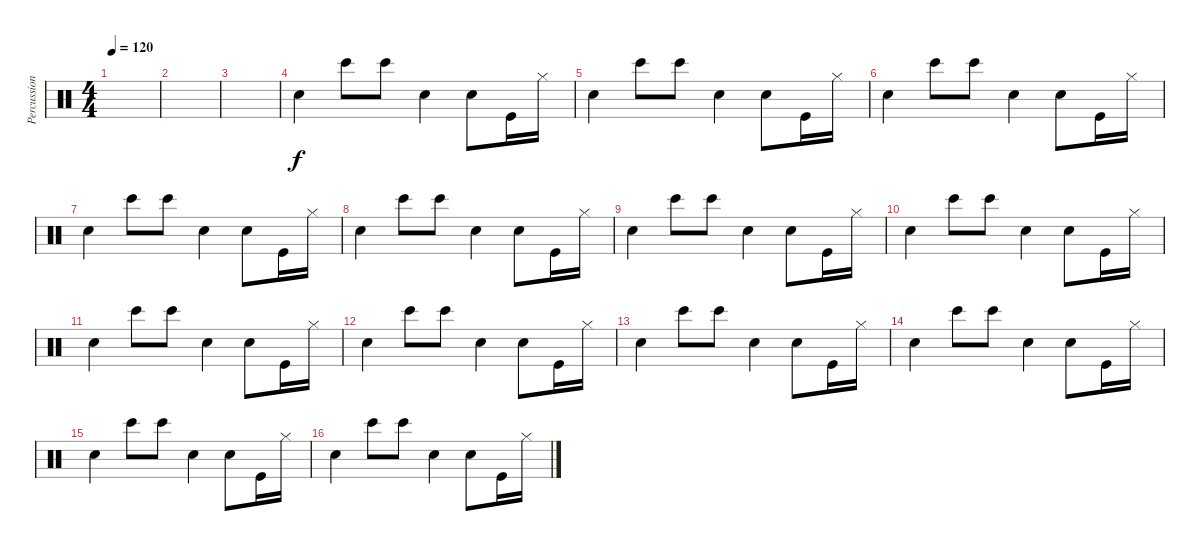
\track ("Percussion" "Percussion") {instrument percussion}
\staff {score}
\articulation defaults
\ts (4 4)
\tempo 120
\clef neutral
\ks c
|
|
|
"Electric Snare (hit)".4 "Bongo High (hit)".8 "Bongo High (hit)".8 "Electric Snare (hit)".4 "Snare (hit) 2".8 "Kick (hit)".16 "Hi-Hat (closed)".16 |
"Electric Snare (hit)".4 "Bongo High (hit)".8 "Bongo High (hit)".8 "Electric Snare (hit)".4 "Snare (hit) 2".8 "Kick (hit)".16 "Hi-Hat (closed)".16 |
"Electric Snare (hit)".4 "Bongo High (hit)".8 "Bongo High (hit)".8 "Electric Snare (hit)".4 "Snare (hit) 2".8 "Kick (hit)".16 "Hi-Hat (closed)".16 |
"Electric Snare (hit)".4 "Bongo High (hit)".8 "Bongo High (hit)".8 "Electric Snare (hit)".4 "Snare (hit) 2".8 "Kick (hit)".16 "Hi-Hat (closed)".16 |
"Electric Snare (hit)".4 "Bongo High (hit)".8 "Bongo High (hit)".8 "Electric Snare (hit)".4 "Snare (hit) 2".8 "Kick (hit)".16 "Hi-Hat (closed)".16 |
"Electric Snare (hit)".4 "Bongo High (hit)".8 "Bongo High (hit)".8 "Electric Snare (hit)".4 "Snare (hit) 2".8 "Kick (hit)".16 "Hi-Hat (closed)".16 |
"Electric Snare (hit)".4 "Bongo High (hit)".8 "Bongo High (hit)".8 "Electric Snare (hit)".4 "Snare (hit) 2".8 "Kick (hit)".16 "Hi-Hat (closed)".16 |
"Electric Snare (hit)".4 "Bongo High (hit)".8 "Bongo High (hit)".8 "Electric Snare (hit)".4 "Snare (hit) 2".8 "Kick (hit)".16 "Hi-Hat (closed)".16 |
"Electric Snare (hit)".4 "Bongo High (hit)".8 "Bongo High (hit)".8 "Electric Snare (hit)".4 "Snare (hit) 2".8 "Kick (hit)".16 "Hi-Hat (closed)".16 |
"Electric Snare (hit)".4 "Bongo High (hit)".8 "Bongo High (hit)".8 "Electric Snare (hit)".4 "Snare (hit) 2".8 "Kick (hit)".16 "Hi-Hat (closed)".16 |
"Electric Snare (hit)".4 "Bongo High (hit)".8 "Bongo High (hit)".8 "Electric Snare (hit)".4 "Snare (hit) 2".8 "Kick (hit)".16 "Hi-Hat (closed)".16 |
"Electric Snare (hit)".4 "Bongo High (hit)".8 "Bongo High (hit)".8 "Electric Snare (hit)".4 "Snare (hit) 2".8 "Kick (hit)".16 "Hi-Hat (closed)".16 |
"Electric Snare (hit)".4 "Bongo High (hit)".8 "Bongo High (hit)".8 "Electric Snare (hit)".4 "Snare (hit) 2".8 "Kick (hit)".16 "Hi-Hat (closed)".16
